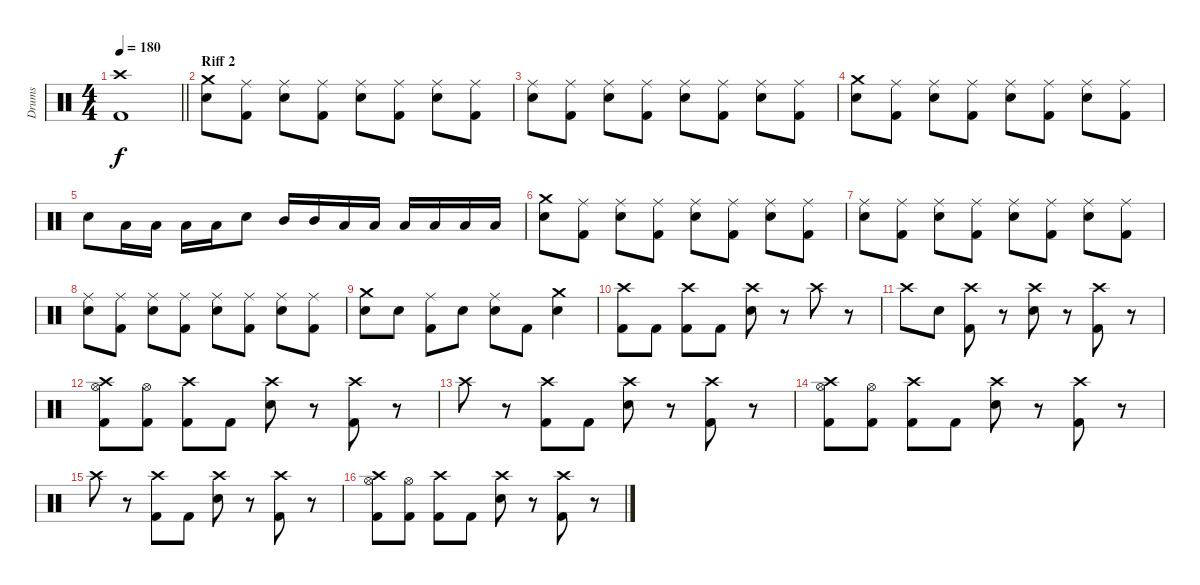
\track ("Drums" "Drums") {instrument percussion}
\staff {score}
\articulation defaults
\ts (4 4)
\tempo 180
\clef neutral
\barLineRight lightlight
\ks c
("Crash high (hit)" "Kick (hit) 2").1{dy f} |
\section ("" "Riff 2")
("Crash medium (hit)" "Snare (hit) 2").8 ("Ride (middle)" "Kick (hit) 2").8 ("Ride (middle)" "Snare (hit) 2").8 ("Ride (middle)" "Kick (hit) 2").8 ("Ride (middle)" "Snare (hit) 2").8 ("Ride (middle)" "Kick (hit) 2").8 ("Ride (middle)" "Snare (hit) 2").8 ("Ride (middle)" "Kick (hit) 2").8 |
("Ride (middle)" "Snare (hit) 2").8 ("Ride (middle)" "Kick (hit) 2").8 ("Ride (middle)" "Snare (hit) 2").8 ("Ride (middle)" "Kick (hit) 2").8 ("Ride (middle)" "Snare (hit) 2").8 ("Ride (middle)" "Kick (hit) 2").8 ("Ride (middle)" "Snare (hit) 2").8 ("Ride (middle)" "Kick (hit) 2").8 |
("Crash medium (hit)" "Snare (hit) 2").8 ("Ride (middle)" "Kick (hit) 2").8 ("Ride (middle)" "Snare (hit) 2").8 ("Ride (middle)" "Kick (hit) 2").8 ("Ride (middle)" "Snare (hit) 2").8 ("Ride (middle)" "Kick (hit) 2").8 ("Ride (middle)" "Snare (hit) 2").8 ("Ride (middle)" "Kick (hit) 2").8 |
"Snare (hit) 2".8 "Low Tom (hit)".16 "Low Tom (hit)".16 "Low Floor Tom (hit)".16 "Low Floor Tom (hit)".16 "Snare (hit) 2".8 "Mid Tom (hit)".16 "Mid Tom (hit)".16 "Low Tom (hit)".16 "Low Tom (hit)".16 "Low Floor Tom (hit)".16 "Low Floor Tom (hit)".16 "Low Floor Tom (hit)".16 "Low Floor Tom (hit)".16 |
("Crash medium (hit)" "Snare (hit) 2").8 ("Ride (middle)" "Kick (hit) 2").8 ("Ride (middle)" "Snare (hit) 2").8 ("Ride (middle)" "Kick (hit) 2").8 ("Ride (middle)" "Snare (hit) 2").8 ("Ride (middle)" "Kick (hit) 2").8 ("Ride (middle)" "Snare (hit) 2").8 ("Ride (middle)" "Kick (hit) 2").8 |
("Ride (middle)" "Snare (hit) 2").8 ("Ride (middle)" "Kick (hit) 2").8 ("Ride (middle)" "Snare (hit) 2").8 ("Ride (middle)" "Kick (hit) 2").8 ("Ride (middle)" "Snare (hit) 2").8 ("Ride (middle)" "Kick (hit) 2").8 ("Ride (middle)" "Snare (hit) 2").8 ("Ride (middle)" "Kick (hit) 2").8 |
("Ride (middle)" "Snare (hit) 2").8 ("Ride (middle)" "Kick (hit) 2").8 ("Ride (middle)" "Snare (hit) 2").8 ("Ride (middle)" "Kick (hit) 2").8 ("Ride (middle)" "Snare (hit) 2").8 ("Ride (middle)" "Kick (hit) 2").8 ("Ride (middle)" "Snare (hit) 2").8 ("Ride (middle)" "Kick (hit) 2").8 |
("Crash medium (hit)" "Snare (hit) 2").8 "Snare (hit) 2".8 ("Ride (middle)" "Kick (hit) 2").8 "Snare (hit) 2".8 ("Ride (middle)" "Snare (hit) 2").8 "Kick (hit) 2".8 ("Crash medium (hit)" "Snare (hit) 2").4 |
("Crash high (hit)" "Kick (hit) 2").8 "Kick (hit) 2".8 ("Crash high (hit)" "Kick (hit) 2").8 "Kick (hit) 2".8 ("Crash high (hit)" "Snare (hit) 2").8 r.8 "Crash high (hit)".8 r.8 |
"Crash high (hit)".8 "Snare (hit) 2".8 ("Crash high (hit)" "Kick (hit) 2").8 r.8 ("Crash high (hit)" "Snare (hit) 2").8 r.8 ("Crash high (hit)" "Kick (hit) 2").8 r.8 |
("Crash high (hit)" "Hi-Hat (open)" "Kick (hit) 2").8 ("Hi-Hat (open)" "Kick (hit) 2").8 ("Crash high (hit)" "Kick (hit) 2").8 "Kick (hit) 2".8 ("Crash high (hit)" "Snare (hit) 2").8 r.8 ("Crash high (hit)" "Kick (hit) 2").8 r.8 |
"Crash high (hit)".8 r.8 ("Crash high (hit)" "Kick (hit) 2").8 "Kick (hit) 2".8 ("Crash high (hit)" "Snare (hit) 2").8 r.8 ("Crash high (hit)" "Kick (hit) 2").8 r.8 |
("Crash high (hit)" "Hi-Hat (open)" "Kick (hit) 2").8 ("Hi-Hat (open)" "Kick (hit) 2").8 ("Crash high (hit)" "Kick (hit) 2").8 "Kick (hit) 2".8 ("Crash high (hit)" "Snare (hit) 2").8 r.8 ("Crash high (hit)" "Kick (hit) 2").8 r.8 |
"Crash high (hit)".8 r.8 ("Crash high (hit)" "Kick (hit) 2").8 "Kick (hit) 2".8 ("Crash high (hit)" "Snare (hit) 2").8 r.8 ("Crash high (hit)" "Kick (hit) 2").8 r.8 |
("Crash high (hit)" "Hi-Hat (open)" "Kick (hit) 2").8 ("Hi-Hat (open)" "Kick (hit) 2").8 ("Crash high (hit)" "Kick (hit) 2").8 "Kick (hit) 2".8 ("Crash high (hit)" "Snare (hit) 2").8 r.8 ("Crash high (hit)" "Kick (hit) 2").8 r.8
